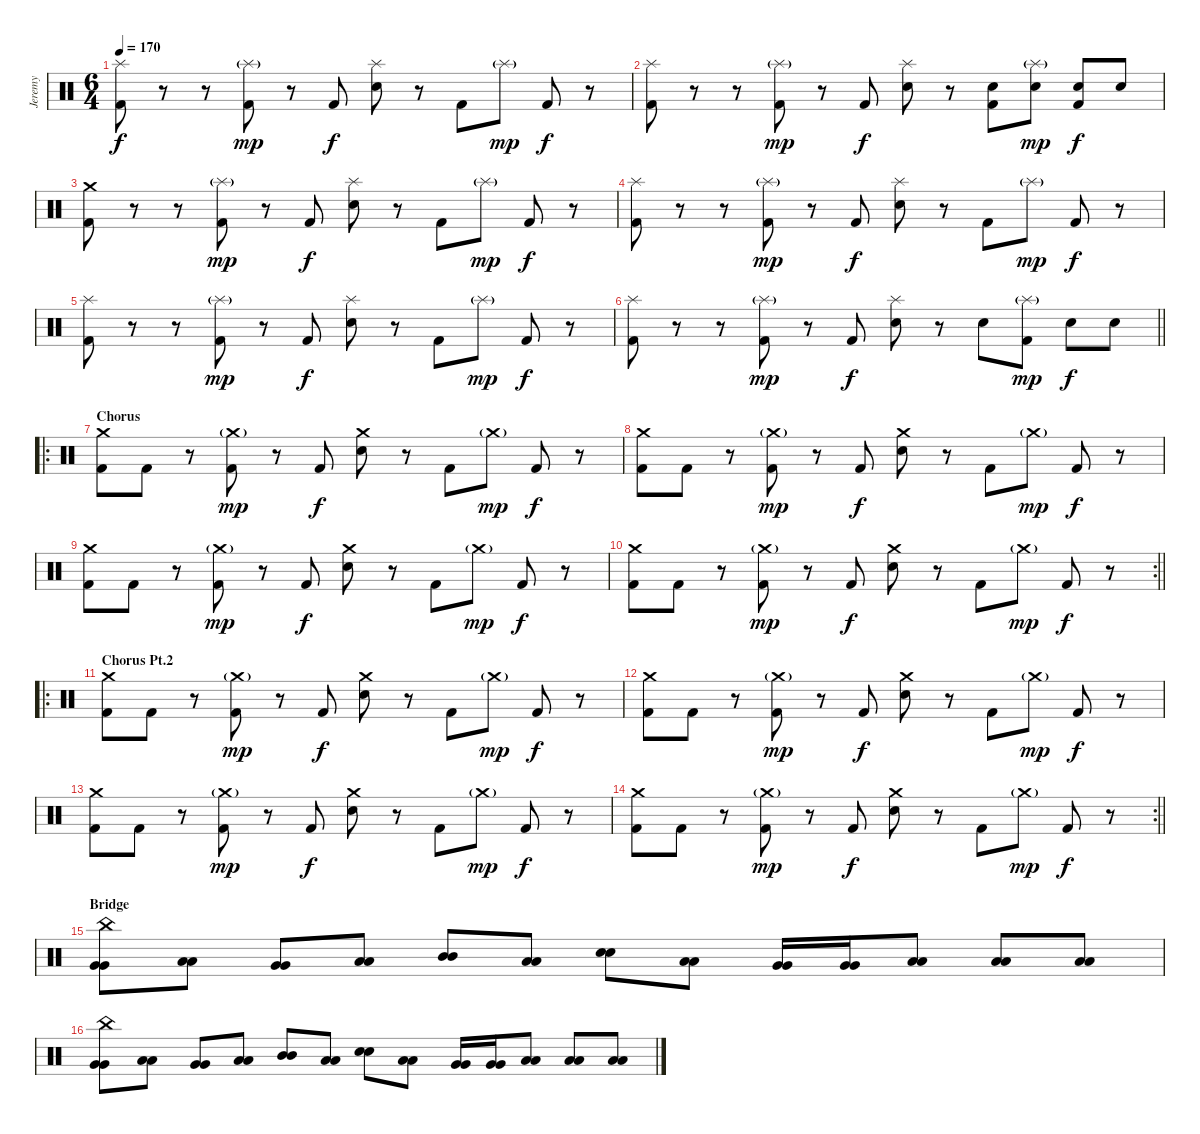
\track ("Jeremy" "Jeremy") {instrument percussion}
\staff {score}
\articulation defaults
\ts (6 4)
\tempo 170
\clef neutral
\ks c
("Splash (hit)" "Kick (hit) 2").8{dy f} r.8 r.8 ("Splash (hit)"{g} "Kick (hit) 2").8{dy mp} r.8 "Kick (hit) 2".8{dy f} ("Splash (hit)" "Electric Snare (hit)").8 r.8 "Kick (hit) 2".8 "Splash (hit)"{g}.8{dy mp} "Kick (hit) 2".8{dy f} r.8 |
("Splash (hit)" "Kick (hit) 2").8 r.8 r.8 ("Splash (hit)"{g} "Kick (hit) 2").8{dy mp} r.8 "Kick (hit) 2".8{dy f} ("Splash (hit)" "Electric Snare (hit)").8 r.8 ("Electric Snare (hit)" "Kick (hit) 2").8 ("Splash (hit)"{g} "Electric Snare (hit)").8{dy mp} ("Electric Snare (hit)" "Kick (hit) 2").8{dy f} "Electric Snare (hit)".8 |
("Crash medium (hit)" "Kick (hit) 2").8 r.8 r.8 ("Splash (hit)"{g} "Kick (hit) 2").8{dy mp} r.8 "Kick (hit) 2".8{dy f} ("Splash (hit)" "Electric Snare (hit)").8 r.8 "Kick (hit) 2".8 "Splash (hit)"{g}.8{dy mp} "Kick (hit) 2".8{dy f} r.8 |
("Splash (hit)" "Kick (hit) 2").8 r.8 r.8 ("Splash (hit)"{g} "Kick (hit) 2").8{dy mp} r.8 "Kick (hit) 2".8{dy f} ("Splash (hit)" "Electric Snare (hit)").8 r.8 "Kick (hit) 2".8 "Splash (hit)"{g}.8{dy mp} "Kick (hit) 2".8{dy f} r.8 |
("Splash (hit)" "Kick (hit) 2").8 r.8 r.8 ("Splash (hit)"{g} "Kick (hit) 2").8{dy mp} r.8 "Kick (hit) 2".8{dy f} ("Splash (hit)" "Electric Snare (hit)").8 r.8 "Kick (hit) 2".8 "Splash (hit)"{g}.8{dy mp} "Kick (hit) 2".8{dy f} r.8 |
\barLineRight lightlight
("Splash (hit)" "Kick (hit) 2").8 r.8 r.8 ("Splash (hit)"{g} "Kick (hit) 2").8{dy mp} r.8 "Kick (hit) 2".8{dy f} ("Splash (hit)" "Snare (hit) 2").8 r.8 "Snare (hit) 2".8 ("Splash (hit)"{g} "Kick (hit) 2").8{dy mp} "Snare (hit) 2".8{dy f} "Snare (hit) 2".8 |
\ro
\section ("" "Chorus")
("Crash medium (hit)" "Kick (hit) 2").8 "Kick (hit) 2".8 r.8 ("Crash medium (hit)"{g} "Kick (hit) 2").8{dy mp} r.8 "Kick (hit) 2".8{dy f} ("Crash medium (hit)" "Electric Snare (hit)").8 r.8 "Kick (hit) 2".8 "Crash medium (hit)"{g}.8{dy mp} "Kick (hit) 2".8{dy f} r.8 |
("Crash medium (hit)" "Kick (hit) 2").8 "Kick (hit) 2".8 r.8 ("Crash medium (hit)"{g} "Kick (hit) 2").8{dy mp} r.8 "Kick (hit) 2".8{dy f} ("Crash medium (hit)" "Electric Snare (hit)").8 r.8 "Kick (hit) 2".8 "Crash medium (hit)"{g}.8{dy mp} "Kick (hit) 2".8{dy f} r.8 |
("Crash medium (hit)" "Kick (hit) 2").8 "Kick (hit) 2".8 r.8 ("Crash medium (hit)"{g} "Kick (hit) 2").8{dy mp} r.8 "Kick (hit) 2".8{dy f} ("Crash medium (hit)" "Electric Snare (hit)").8 r.8 "Kick (hit) 2".8 "Crash medium (hit)"{g}.8{dy mp} "Kick (hit) 2".8{dy f} r.8 |
\rc 2
\barLineRight lightlight
("Crash medium (hit)" "Kick (hit) 2").8 "Kick (hit) 2".8 r.8 ("Crash medium (hit)"{g} "Kick (hit) 2").8{dy mp} r.8 "Kick (hit) 2".8{dy f} ("Crash medium (hit)" "Electric Snare (hit)").8 r.8 "Kick (hit) 2".8 "Crash medium (hit)"{g}.8{dy mp} "Kick (hit) 2".8{dy f} r.8 |
\ro
\section ("" "Chorus Pt.2")
("Crash medium (hit)" "Kick (hit) 2").8 "Kick (hit) 2".8 r.8 ("Crash medium (hit)"{g} "Kick (hit) 2").8{dy mp} r.8 "Kick (hit) 2".8{dy f} ("Crash medium (hit)" "Electric Snare (hit)").8 r.8 "Kick (hit) 2".8 "Crash medium (hit)"{g}.8{dy mp} "Kick (hit) 2".8{dy f} r.8 |
("Crash medium (hit)" "Kick (hit) 2").8 "Kick (hit) 2".8 r.8 ("Crash medium (hit)"{g} "Kick (hit) 2").8{dy mp} r.8 "Kick (hit) 2".8{dy f} ("Crash medium (hit)" "Electric Snare (hit)").8 r.8 "Kick (hit) 2".8 "Crash medium (hit)"{g}.8{dy mp} "Kick (hit) 2".8{dy f} r.8 |
("Crash medium (hit)" "Kick (hit) 2").8 "Kick (hit) 2".8 r.8 ("Crash medium (hit)"{g} "Kick (hit) 2").8{dy mp} r.8 "Kick (hit) 2".8{dy f} ("Crash medium (hit)" "Electric Snare (hit)").8 r.8 "Kick (hit) 2".8 "Crash medium (hit)"{g}.8{dy mp} "Kick (hit) 2".8{dy f} r.8 |
\rc 2
\barLineRight lightlight
("Crash medium (hit)" "Kick (hit) 2").8 "Kick (hit) 2".8 r.8 ("Crash medium (hit)"{g} "Kick (hit) 2").8{dy mp} r.8 "Kick (hit) 2".8{dy f} ("Crash medium (hit)" "Electric Snare (hit)").8 r.8 "Kick (hit) 2".8 "Crash medium (hit)"{g}.8{dy mp} "Kick (hit) 2".8{dy f} r.8 |
\section ("" "Bridge")
("China (hit)" "Very Low Tom (hit)" "Very Low Tom (hit)").8 ("Low Floor Tom (hit)" "Low Floor Tom (hit)").8 ("Very Low Tom (hit)" "Very Low Tom (hit)").8 ("Low Tom (hit)" "Low Tom (hit)").8 ("Mid Tom (hit)" "Mid Tom (hit)").8 ("Low Tom (hit)" "Low Tom (hit)").8 ("Snare (hit) 2" "Snare (hit) 2").8 ("Low Tom (hit)" "Low Tom (hit)").8 ("Very Low Tom (hit)" "Very Low Tom (hit)").16 ("Very Low Tom (hit)" "Very Low Tom (hit)").16 ("Low Floor Tom (hit)" "Low Floor Tom (hit)").8 ("Low Floor Tom (hit)" "Low Floor Tom (hit)").8 ("Low Floor Tom (hit)" "Low Floor Tom (hit)").8 |
("China (hit)" "Very Low Tom (hit)" "Very Low Tom (hit)").8 ("Low Floor Tom (hit)" "Low Floor Tom (hit)").8 ("Very Low Tom (hit)" "Very Low Tom (hit)").8 ("Low Tom (hit)" "Low Tom (hit)").8 ("Mid Tom (hit)" "Mid Tom (hit)").8 ("Low Tom (hit)" "Low Tom (hit)").8 ("Snare (hit) 2" "Snare (hit) 2").8 ("Low Tom (hit)" "Low Tom (hit)").8 ("Very Low Tom (hit)" "Very Low Tom (hit)").16 ("Very Low Tom (hit)" "Very Low Tom (hit)").16 ("Low Floor Tom (hit)" "Low Floor Tom (hit)").8 ("Low Floor Tom (hit)" "Low Floor Tom (hit)").8 ("Low Floor Tom (hit)" "Low Floor Tom (hit)").8
